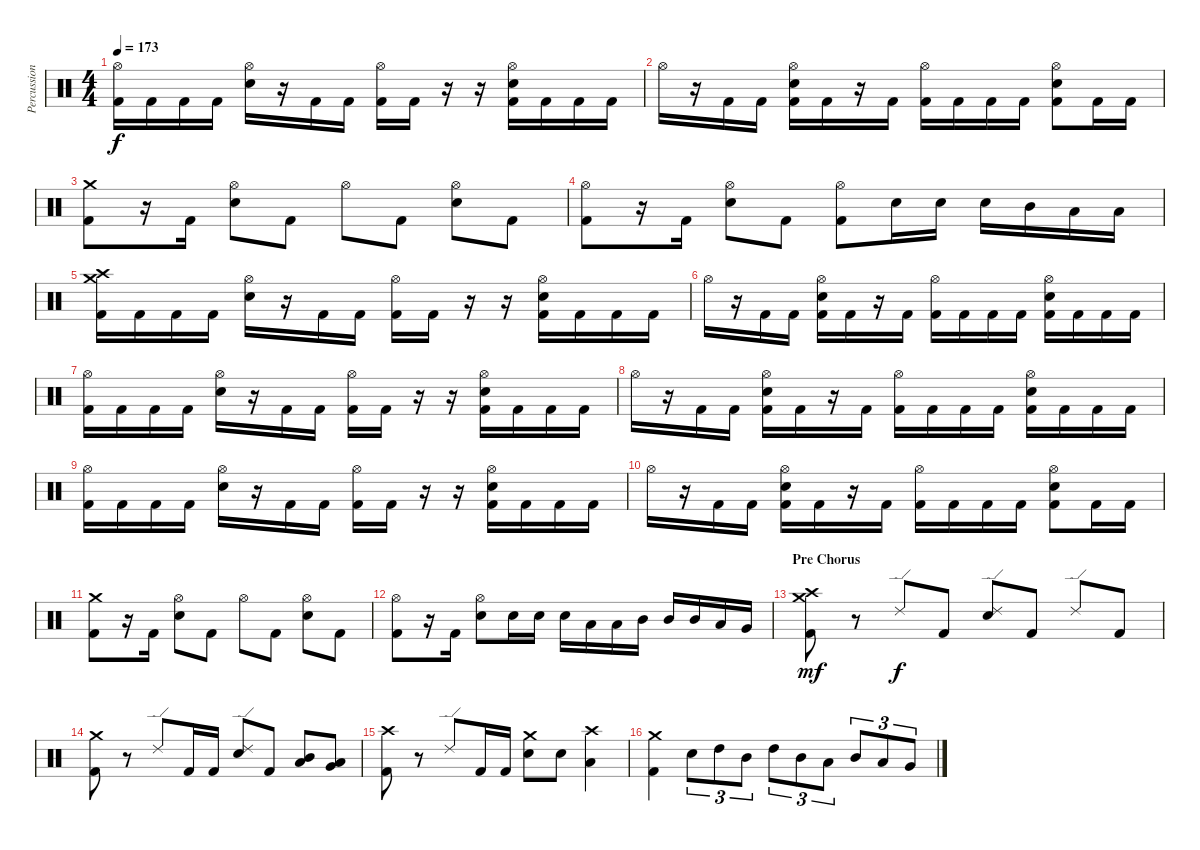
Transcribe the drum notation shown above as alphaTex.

\track ("Percussions" "Percussion") {instrument percussion}
\staff {score}
\articulation defaults
\ts (4 4)
\tempo 173
\clef neutral
\ks c
("Hi-Hat (open)" "Kick (hit) 2").16{dy f} "Kick (hit) 2".16 "Kick (hit) 2".16 "Kick (hit) 2".16 ("Hi-Hat (open)" "Electric Snare (hit)").16 r.16 "Kick (hit) 2".16 "Kick (hit) 2".16 ("Hi-Hat (open)" "Kick (hit) 2").16 "Kick (hit) 2".16 r.16 r.16 ("Hi-Hat (open)" "Electric Snare (hit)" "Kick (hit) 2").16 "Kick (hit) 2".16 "Kick (hit) 2".16 "Kick (hit) 2".16 |
"Hi-Hat (open)".16 r.16 "Kick (hit) 2".16 "Kick (hit) 2".16 ("Hi-Hat (open)" "Electric Snare (hit)" "Kick (hit) 2").16 "Kick (hit) 2".16 r.16 "Kick (hit) 2".16 ("Hi-Hat (open)" "Kick (hit) 2").16 "Kick (hit) 2".16 "Kick (hit) 2".16 "Kick (hit) 2".16 ("Hi-Hat (open)" "Electric Snare (hit)" "Kick (hit) 2").8 "Kick (hit) 2".16 "Kick (hit) 2".16 |
("Crash medium (hit)" "Kick (hit) 2").8 r.16 "Kick (hit) 2".16 ("Hi-Hat (open)" "Electric Snare (hit)").8 "Kick (hit) 2".8 "Hi-Hat (open)".8 "Kick (hit) 2".8 ("Hi-Hat (open)" "Electric Snare (hit)").8 "Kick (hit) 2".8 |
("Hi-Hat (open)" "Kick (hit) 2").8 r.16 "Kick (hit) 2".16 ("Hi-Hat (open)" "Electric Snare (hit)").8 "Kick (hit) 2".8 ("Hi-Hat (open)" "Kick (hit) 2").8 "Electric Snare (hit)".16 "Electric Snare (hit)".16 "Electric Snare (hit)".16 "Mid Tom (hit)".16 "Low Tom (hit)".16 "Low Tom (hit)".16 |
("Crash high (hit)" "Crash medium (hit)" "Kick (hit) 2").16 "Kick (hit) 2".16 "Kick (hit) 2".16 "Kick (hit) 2".16 ("Hi-Hat (open)" "Electric Snare (hit)").16 r.16 "Kick (hit) 2".16 "Kick (hit) 2".16 ("Hi-Hat (open)" "Kick (hit) 2").16 "Kick (hit) 2".16 r.16 r.16 ("Hi-Hat (open)" "Electric Snare (hit)" "Kick (hit) 2").16 "Kick (hit) 2".16 "Kick (hit) 2".16 "Kick (hit) 2".16 |
"Hi-Hat (open)".16 r.16 "Kick (hit) 2".16 "Kick (hit) 2".16 ("Hi-Hat (open)" "Electric Snare (hit)" "Kick (hit) 2").16 "Kick (hit) 2".16 r.16 "Kick (hit) 2".16 ("Hi-Hat (open)" "Kick (hit) 2").16 "Kick (hit) 2".16 "Kick (hit) 2".16 "Kick (hit) 2".16 ("Hi-Hat (open)" "Electric Snare (hit)" "Kick (hit) 2").16 "Kick (hit) 2".16 "Kick (hit) 2".16 "Kick (hit) 2".16 |
("Hi-Hat (open)" "Kick (hit) 2").16 "Kick (hit) 2".16 "Kick (hit) 2".16 "Kick (hit) 2".16 ("Hi-Hat (open)" "Electric Snare (hit)").16 r.16 "Kick (hit) 2".16 "Kick (hit) 2".16 ("Hi-Hat (open)" "Kick (hit) 2").16 "Kick (hit) 2".16 r.16 r.16 ("Hi-Hat (open)" "Electric Snare (hit)" "Kick (hit) 2").16 "Kick (hit) 2".16 "Kick (hit) 2".16 "Kick (hit) 2".16 |
"Hi-Hat (open)".16 r.16 "Kick (hit) 2".16 "Kick (hit) 2".16 ("Hi-Hat (open)" "Electric Snare (hit)" "Kick (hit) 2").16 "Kick (hit) 2".16 r.16 "Kick (hit) 2".16 ("Hi-Hat (open)" "Kick (hit) 2").16 "Kick (hit) 2".16 "Kick (hit) 2".16 "Kick (hit) 2".16 ("Hi-Hat (open)" "Electric Snare (hit)" "Kick (hit) 2").16 "Kick (hit) 2".16 "Kick (hit) 2".16 "Kick (hit) 2".16 |
("Hi-Hat (open)" "Kick (hit) 2").16 "Kick (hit) 2".16 "Kick (hit) 2".16 "Kick (hit) 2".16 ("Hi-Hat (open)" "Electric Snare (hit)").16 r.16 "Kick (hit) 2".16 "Kick (hit) 2".16 ("Hi-Hat (open)" "Kick (hit) 2").16 "Kick (hit) 2".16 r.16 r.16 ("Hi-Hat (open)" "Electric Snare (hit)" "Kick (hit) 2").16 "Kick (hit) 2".16 "Kick (hit) 2".16 "Kick (hit) 2".16 |
"Hi-Hat (open)".16 r.16 "Kick (hit) 2".16 "Kick (hit) 2".16 ("Hi-Hat (open)" "Electric Snare (hit)" "Kick (hit) 2").16 "Kick (hit) 2".16 r.16 "Kick (hit) 2".16 ("Hi-Hat (open)" "Kick (hit) 2").16 "Kick (hit) 2".16 "Kick (hit) 2".16 "Kick (hit) 2".16 ("Hi-Hat (open)" "Electric Snare (hit)" "Kick (hit) 2").8 "Kick (hit) 2".16 "Kick (hit) 2".16 |
("Crash medium (hit)" "Kick (hit) 2").8 r.16 "Kick (hit) 2".16 ("Hi-Hat (open)" "Electric Snare (hit)").8 "Kick (hit) 2".8 "Hi-Hat (open)".8 "Kick (hit) 2".8 ("Hi-Hat (open)" "Electric Snare (hit)").8 "Kick (hit) 2".8 |
("Hi-Hat (open)" "Kick (hit) 2").8 r.16 "Kick (hit) 2".16 ("Hi-Hat (open)" "Electric Snare (hit)").8 "Electric Snare (hit)".16 "Electric Snare (hit)".16 "Electric Snare (hit)".16 "Low Tom (hit)".16 "Low Tom (hit)".16 "Mid Tom (hit)".16 "Mid Tom (hit)".16 "Mid Tom (hit)".16 "Low Tom (hit)".16 "Very Low Tom (hit)".16 |
\section ("" "Pre Chorus")
("Crash high (hit)" "Crash medium (hit)" "Kick (hit) 2").8{dy mf} r.8 "Ride (edge) 2".8{dy f} "Kick (hit) 2".8 ("Ride (edge) 2" "Electric Snare (hit)").8 "Kick (hit) 2".8 "Ride (edge) 2".8 "Kick (hit) 2".8 |
("Crash medium (hit)" "Kick (hit) 2").8 r.8 "Ride (edge) 2".8 "Kick (hit) 2".16 "Kick (hit) 2".16 ("Ride (edge) 2" "Electric Snare (hit)").8 "Kick (hit) 2".8 ("Mid Tom (hit)" "Low Tom (hit)").8 ("Low Tom (hit)" "Very Low Tom (hit)").8 |
("Crash high (hit)" "Kick (hit) 2").8 r.8 "Ride (edge) 2".8 "Kick (hit) 2".16 "Kick (hit) 2".16 ("Crash medium (hit)" "Electric Snare (hit)").8 "Electric Snare (hit)".8 ("Crash high (hit)" "Low Tom (hit)").4 |
("Crash medium (hit)" "Kick (hit) 2").4 "Electric Snare (hit)".8{tu (3 2)} "High Tom (hit)".8{tu (3 2)} "Mid Tom (hit)".8{tu (3 2)} "High Tom (hit)".8{tu (3 2)} "Mid Tom (hit)".8{tu (3 2)} "Low Tom (hit)".8{tu (3 2)} "Mid Tom (hit)".8{tu (3 2)} "Low Tom (hit)".8{tu (3 2)} "Very Low Tom (hit)".8{tu (3 2)}
